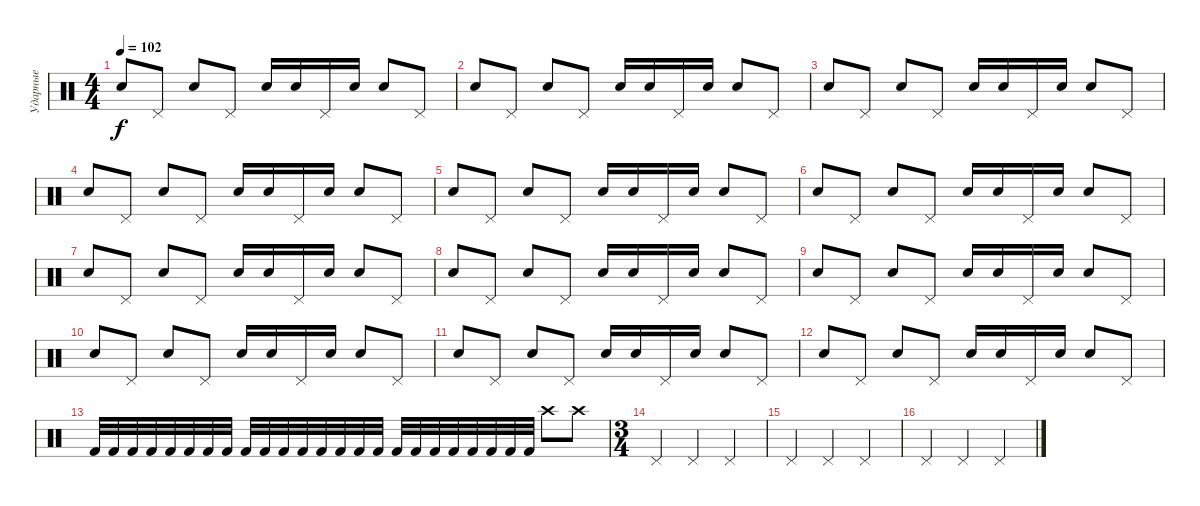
\track ("Ударные" "Ударные") {instrument percussion}
\staff {score}
\articulation defaults
\ts (4 4)
\tempo 102
\clef neutral
\ks c "Snare (hit) 2".8{dy f} "Pedal Hi-Hat (hit)".8 "Snare (hit) 2".8 "Pedal Hi-Hat (hit)".8 "Snare (hit) 2".16 "Snare (hit) 2".16 "Pedal Hi-Hat (hit)".16 "Snare (hit) 2".16 "Snare (hit) 2".8 "Pedal Hi-Hat (hit)".8
|
"Snare (hit) 2".8 "Pedal Hi-Hat (hit)".8 "Snare (hit) 2".8 "Pedal Hi-Hat (hit)".8 "Snare (hit) 2".16 "Snare (hit) 2".16 "Pedal Hi-Hat (hit)".16 "Snare (hit) 2".16 "Snare (hit) 2".8 "Pedal Hi-Hat (hit)".8 |
"Snare (hit) 2".8 "Pedal Hi-Hat (hit)".8 "Snare (hit) 2".8 "Pedal Hi-Hat (hit)".8 "Snare (hit) 2".16 "Snare (hit) 2".16 "Pedal Hi-Hat (hit)".16 "Snare (hit) 2".16 "Snare (hit) 2".8 "Pedal Hi-Hat (hit)".8 |
"Snare (hit) 2".8 "Pedal Hi-Hat (hit)".8 "Snare (hit) 2".8 "Pedal Hi-Hat (hit)".8 "Snare (hit) 2".16 "Snare (hit) 2".16 "Pedal Hi-Hat (hit)".16 "Snare (hit) 2".16 "Snare (hit) 2".8 "Pedal Hi-Hat (hit)".8 |
"Snare (hit) 2".8 "Pedal Hi-Hat (hit)".8 "Snare (hit) 2".8 "Pedal Hi-Hat (hit)".8 "Snare (hit) 2".16 "Snare (hit) 2".16 "Pedal Hi-Hat (hit)".16 "Snare (hit) 2".16 "Snare (hit) 2".8 "Pedal Hi-Hat (hit)".8 |
"Snare (hit) 2".8 "Pedal Hi-Hat (hit)".8 "Snare (hit) 2".8 "Pedal Hi-Hat (hit)".8 "Snare (hit) 2".16 "Snare (hit) 2".16 "Pedal Hi-Hat (hit)".16 "Snare (hit) 2".16 "Snare (hit) 2".8 "Pedal Hi-Hat (hit)".8 |
"Snare (hit) 2".8 "Pedal Hi-Hat (hit)".8 "Snare (hit) 2".8 "Pedal Hi-Hat (hit)".8 "Snare (hit) 2".16 "Snare (hit) 2".16 "Pedal Hi-Hat (hit)".16 "Snare (hit) 2".16 "Snare (hit) 2".8 "Pedal Hi-Hat (hit)".8 |
"Snare (hit) 2".8 "Pedal Hi-Hat (hit)".8 "Snare (hit) 2".8 "Pedal Hi-Hat (hit)".8 "Snare (hit) 2".16 "Snare (hit) 2".16 "Pedal Hi-Hat (hit)".16 "Snare (hit) 2".16 "Snare (hit) 2".8 "Pedal Hi-Hat (hit)".8 |
"Snare (hit) 2".8 "Pedal Hi-Hat (hit)".8 "Snare (hit) 2".8 "Pedal Hi-Hat (hit)".8 "Snare (hit) 2".16 "Snare (hit) 2".16 "Pedal Hi-Hat (hit)".16 "Snare (hit) 2".16 "Snare (hit) 2".8 "Pedal Hi-Hat (hit)".8 |
"Snare (hit) 2".8 "Pedal Hi-Hat (hit)".8 "Snare (hit) 2".8 "Pedal Hi-Hat (hit)".8 "Snare (hit) 2".16 "Snare (hit) 2".16 "Pedal Hi-Hat (hit)".16 "Snare (hit) 2".16 "Snare (hit) 2".8 "Pedal Hi-Hat (hit)".8 |
"Snare (hit) 2".8 "Pedal Hi-Hat (hit)".8 "Snare (hit) 2".8 "Pedal Hi-Hat (hit)".8 "Snare (hit) 2".16 "Snare (hit) 2".16 "Pedal Hi-Hat (hit)".16 "Snare (hit) 2".16 "Snare (hit) 2".8 "Pedal Hi-Hat (hit)".8 |
"Snare (hit) 2".8 "Pedal Hi-Hat (hit)".8 "Snare (hit) 2".8 "Pedal Hi-Hat (hit)".8 "Snare (hit) 2".16 "Snare (hit) 2".16 "Pedal Hi-Hat (hit)".16 "Snare (hit) 2".16 "Snare (hit) 2".8 "Pedal Hi-Hat (hit)".8 |
"Kick (hit) 2".32 "Kick (hit) 2".32 "Kick (hit) 2".32 "Kick (hit) 2".32 "Kick (hit) 2".32 "Kick (hit) 2".32 "Kick (hit) 2".32 "Kick (hit) 2".32 "Kick (hit) 2".32 "Kick (hit) 2".32 "Kick (hit) 2".32 "Kick (hit) 2".32 "Kick (hit) 2".32 "Kick (hit) 2".32 "Kick (hit) 2".32 "Kick (hit) 2".32 "Kick (hit) 2".32 "Kick (hit) 2".32 "Kick (hit) 2".32 "Kick (hit) 2".32 "Kick (hit) 2".32 "Kick (hit) 2".32 "Kick (hit) 2".32 "Kick (hit) 2".32 "Crash high (hit)".8 "Crash high (hit)".8 |
\ts (3 4)
"Pedal Hi-Hat (hit)".4 "Pedal Hi-Hat (hit)".4 "Pedal Hi-Hat (hit)".4 |
"Pedal Hi-Hat (hit)".4 "Pedal Hi-Hat (hit)".4 "Pedal Hi-Hat (hit)".4 |
"Pedal Hi-Hat (hit)".4 "Pedal Hi-Hat (hit)".4 "Pedal Hi-Hat (hit)".4
